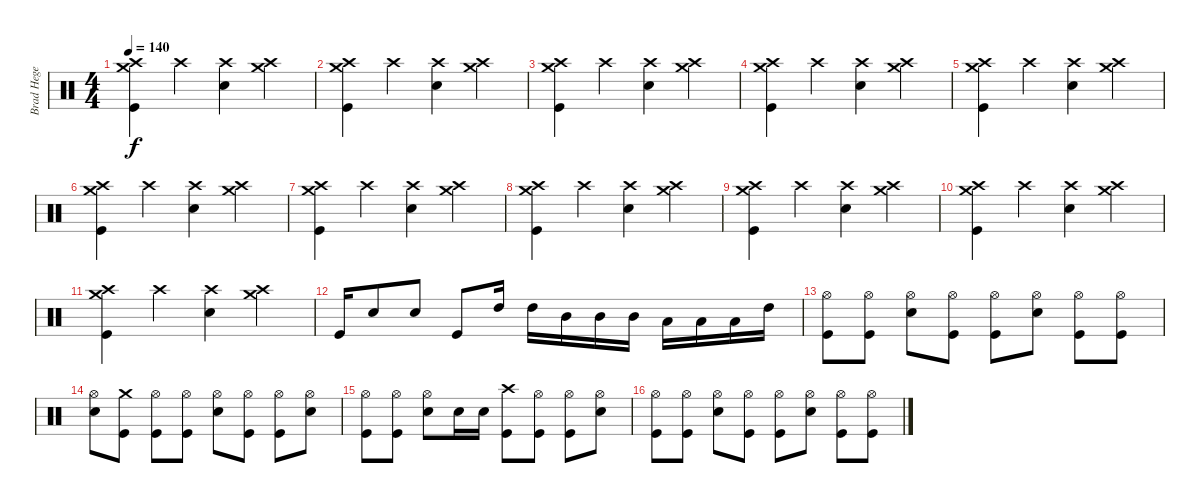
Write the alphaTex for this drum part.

\track ("Brad Hege" "Brad Hege") {instrument percussion}
\staff {score}
\articulation defaults
\ts (4 4)
\tempo 140
\clef neutral
\ks c
("Crash high (hit)" "Crash medium (hit)" "Kick (hit)").4{dy f} "Crash high (hit)".4 ("Crash high (hit)" "Snare (hit) 2").4 ("Crash high (hit)" "Crash medium (hit)").4 |
("Crash high (hit)" "Crash medium (hit)" "Kick (hit)").4 "Crash high (hit)".4 ("Crash high (hit)" "Snare (hit) 2").4 ("Crash high (hit)" "Crash medium (hit)").4 |
("Crash high (hit)" "Crash medium (hit)" "Kick (hit)").4 "Crash high (hit)".4 ("Crash high (hit)" "Snare (hit) 2").4 ("Crash high (hit)" "Crash medium (hit)").4 |
("Crash high (hit)" "Crash medium (hit)" "Kick (hit)").4 "Crash high (hit)".4 ("Crash high (hit)" "Snare (hit) 2").4 ("Crash high (hit)" "Crash medium (hit)").4 |
("Crash high (hit)" "Crash medium (hit)" "Kick (hit)").4 "Crash high (hit)".4 ("Crash high (hit)" "Snare (hit) 2").4 ("Crash high (hit)" "Crash medium (hit)").4 |
("Crash high (hit)" "Crash medium (hit)" "Kick (hit)").4 "Crash high (hit)".4 ("Crash high (hit)" "Snare (hit) 2").4 ("Crash high (hit)" "Crash medium (hit)").4 |
("Crash high (hit)" "Crash medium (hit)" "Kick (hit)").4 "Crash high (hit)".4 ("Crash high (hit)" "Snare (hit) 2").4 ("Crash high (hit)" "Crash medium (hit)").4 |
("Crash high (hit)" "Crash medium (hit)" "Kick (hit)").4 "Crash high (hit)".4 ("Crash high (hit)" "Snare (hit) 2").4 ("Crash high (hit)" "Crash medium (hit)").4 |
("Crash high (hit)" "Crash medium (hit)" "Kick (hit)").4 "Crash high (hit)".4 ("Crash high (hit)" "Snare (hit) 2").4 ("Crash high (hit)" "Crash medium (hit)").4 |
("Crash high (hit)" "Crash medium (hit)" "Kick (hit)").4 "Crash high (hit)".4 ("Crash high (hit)" "Snare (hit) 2").4 ("Crash high (hit)" "Crash medium (hit)").4 |
("Crash high (hit)" "Crash medium (hit)" "Kick (hit)").4 "Crash high (hit)".4 ("Crash high (hit)" "Snare (hit) 2").4 ("Crash high (hit)" "Crash medium (hit)").4 |
"Kick (hit)".16 "Snare (hit) 2".8 "Snare (hit) 2".8 "Kick (hit)".8 "High Tom (hit)".16 "High Tom (hit)".16 "Mid Tom (hit)".16 "Mid Tom (hit)".16 "Mid Tom (hit)".16 "Low Floor Tom (hit)".16 "Low Floor Tom (hit)".16 "Low Floor Tom (hit)".16 "High Tom (hit)".16 |
("Hi-Hat (open)" "Kick (hit)").8 ("Hi-Hat (open)" "Kick (hit)").8 ("Hi-Hat (open)" "Snare (hit) 2").8 ("Hi-Hat (open)" "Kick (hit)").8 ("Hi-Hat (open)" "Kick (hit)").8 ("Hi-Hat (open)" "Snare (hit) 2").8 ("Hi-Hat (open)" "Kick (hit)").8 ("Hi-Hat (open)" "Kick (hit)").8 |
("Hi-Hat (open)" "Snare (hit) 2").8 ("Crash medium (hit)" "Kick (hit)").8 ("Hi-Hat (open)" "Kick (hit)").8 ("Hi-Hat (open)" "Kick (hit)").8 ("Hi-Hat (open)" "Snare (hit) 2").8 ("Hi-Hat (open)" "Kick (hit)").8 ("Hi-Hat (open)" "Kick (hit)").8 ("Hi-Hat (open)" "Snare (hit) 2").8 |
("Hi-Hat (open)" "Kick (hit)").8 ("Hi-Hat (open)" "Kick (hit)").8 ("Hi-Hat (open)" "Snare (hit) 2").8 "Snare (hit) 2".16 "Snare (hit) 2".16 ("Crash high (hit)" "Kick (hit)").8 ("Hi-Hat (open)" "Kick (hit)").8 ("Hi-Hat (open)" "Kick (hit)").8 ("Hi-Hat (open)" "Snare (hit) 2").8 |
("Hi-Hat (open)" "Kick (hit)").8 ("Hi-Hat (open)" "Kick (hit)").8 ("Hi-Hat (open)" "Snare (hit) 2").8 ("Hi-Hat (open)" "Kick (hit)").8 ("Hi-Hat (open)" "Kick (hit)").8 ("Hi-Hat (open)" "Snare (hit) 2").8 ("Hi-Hat (open)" "Kick (hit)").8 ("Hi-Hat (open)" "Kick (hit)").8
